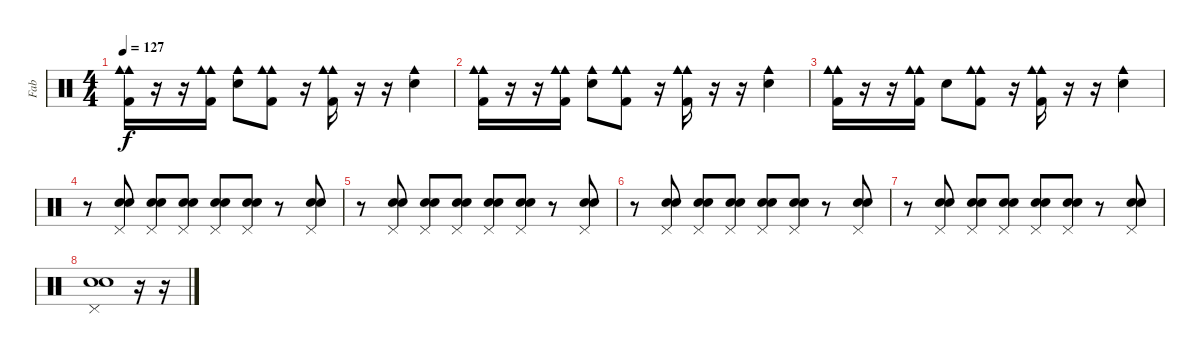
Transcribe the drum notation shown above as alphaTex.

\track ("Fab" "Fab") {instrument percussion}
\staff {score}
\articulation defaults
\ts (4 4)
\tempo 127
\clef neutral
\ks c
("Cowbell medium (hit)" "Kick (hit) 2" "Cowbell medium (hit)").16{dy f} r.16 r.16 ("Cowbell medium (hit)" "Kick (hit) 2" "Cowbell medium (hit)").16 ("Electric Snare (hit)" "Cowbell medium (hit)").8 ("Cowbell medium (hit)" "Kick (hit) 2" "Cowbell medium (hit)").8 r.16 ("Cowbell medium (hit)" "Kick (hit) 2" "Cowbell medium (hit)").16 r.16 r.16 ("Electric Snare (hit)" "Cowbell medium (hit)").4 |
("Cowbell medium (hit)" "Kick (hit) 2" "Cowbell medium (hit)").16 r.16 r.16 ("Cowbell medium (hit)" "Kick (hit) 2" "Cowbell medium (hit)").16 ("Electric Snare (hit)" "Cowbell medium (hit)").8 ("Cowbell medium (hit)" "Kick (hit) 2" "Cowbell medium (hit)").8 r.16 ("Cowbell medium (hit)" "Kick (hit) 2" "Cowbell medium (hit)").16 r.16 r.16 ("Electric Snare (hit)" "Cowbell medium (hit)").4 |
("Cowbell medium (hit)" "Kick (hit) 2" "Cowbell medium (hit)").16 r.16 r.16 ("Cowbell medium (hit)" "Kick (hit) 2" "Cowbell medium (hit)").16 "Electric Snare (hit)".8 ("Cowbell medium (hit)" "Kick (hit) 2" "Cowbell medium (hit)").8 r.16 ("Cowbell medium (hit)" "Kick (hit) 2" "Cowbell medium (hit)").16 r.16 r.16 ("Electric Snare (hit)" "Cowbell medium (hit)").4 |
r.8 ("Snare (hit) 2" "Electric Snare (hit)" "Pedal Hi-Hat (hit)").8 ("Snare (hit) 2" "Electric Snare (hit)" "Pedal Hi-Hat (hit)").8 ("Snare (hit) 2" "Electric Snare (hit)" "Pedal Hi-Hat (hit)").8 ("Snare (hit) 2" "Electric Snare (hit)" "Pedal Hi-Hat (hit)").8 ("Snare (hit) 2" "Electric Snare (hit)" "Pedal Hi-Hat (hit)").8 r.8 ("Snare (hit) 2" "Electric Snare (hit)" "Pedal Hi-Hat (hit)").8 |
r.8 ("Snare (hit) 2" "Electric Snare (hit)" "Pedal Hi-Hat (hit)").8 ("Snare (hit) 2" "Electric Snare (hit)" "Pedal Hi-Hat (hit)").8 ("Snare (hit) 2" "Electric Snare (hit)" "Pedal Hi-Hat (hit)").8 ("Snare (hit) 2" "Electric Snare (hit)" "Pedal Hi-Hat (hit)").8 ("Snare (hit) 2" "Electric Snare (hit)" "Pedal Hi-Hat (hit)").8 r.8 ("Snare (hit) 2" "Electric Snare (hit)" "Pedal Hi-Hat (hit)").8 |
r.8 ("Snare (hit) 2" "Electric Snare (hit)" "Pedal Hi-Hat (hit)").8 ("Snare (hit) 2" "Electric Snare (hit)" "Pedal Hi-Hat (hit)").8 ("Snare (hit) 2" "Electric Snare (hit)" "Pedal Hi-Hat (hit)").8 ("Snare (hit) 2" "Electric Snare (hit)" "Pedal Hi-Hat (hit)").8 ("Snare (hit) 2" "Electric Snare (hit)" "Pedal Hi-Hat (hit)").8 r.8 ("Snare (hit) 2" "Electric Snare (hit)" "Pedal Hi-Hat (hit)").8 |
r.8 ("Snare (hit) 2" "Electric Snare (hit)" "Pedal Hi-Hat (hit)").8 ("Snare (hit) 2" "Electric Snare (hit)" "Pedal Hi-Hat (hit)").8 ("Snare (hit) 2" "Electric Snare (hit)" "Pedal Hi-Hat (hit)").8 ("Snare (hit) 2" "Electric Snare (hit)" "Pedal Hi-Hat (hit)").8 ("Snare (hit) 2" "Electric Snare (hit)" "Pedal Hi-Hat (hit)").8 r.8 ("Snare (hit) 2" "Electric Snare (hit)" "Pedal Hi-Hat (hit)").8 |
("Snare (hit) 2" "Electric Snare (hit)" "Pedal Hi-Hat (hit)").1 r.16 r.16
